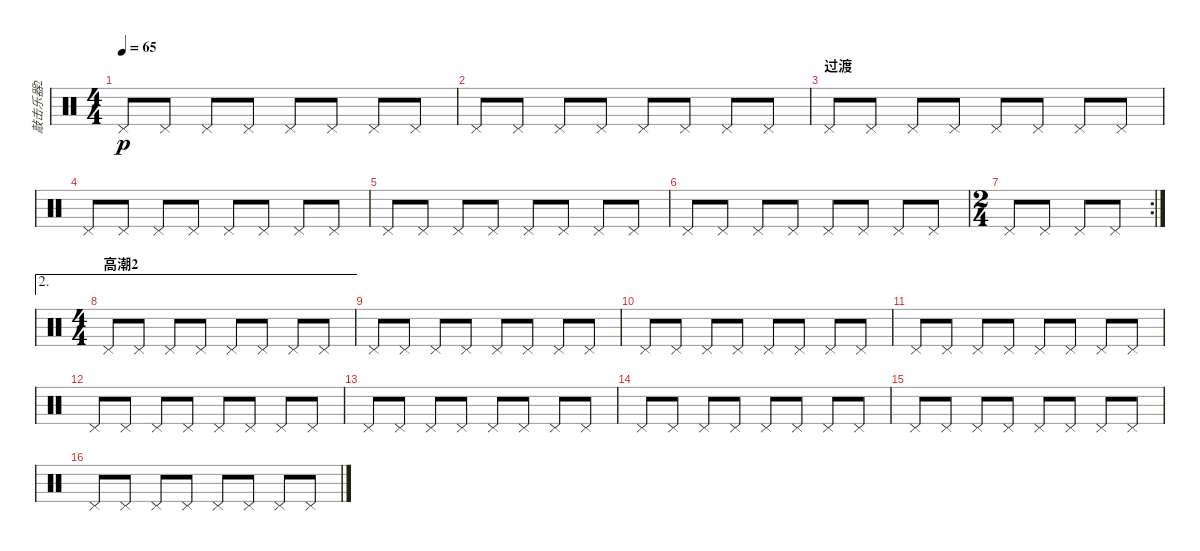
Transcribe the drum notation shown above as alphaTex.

\track ("敲击乐器2" "敲击乐器2") {instrument percussion}
\staff {score}
\articulation defaults
\ts (4 4)
\tempo 65
\clef neutral
\ks c "Pedal Hi-Hat (hit)".8{dy p} "Pedal Hi-Hat (hit)".8 "Pedal Hi-Hat (hit)".8 "Pedal Hi-Hat (hit)".8 "Pedal Hi-Hat (hit)".8 "Pedal Hi-Hat (hit)".8 "Pedal Hi-Hat (hit)".8 "Pedal Hi-Hat (hit)".8
|
"Pedal Hi-Hat (hit)".8 "Pedal Hi-Hat (hit)".8 "Pedal Hi-Hat (hit)".8 "Pedal Hi-Hat (hit)".8 "Pedal Hi-Hat (hit)".8 "Pedal Hi-Hat (hit)".8 "Pedal Hi-Hat (hit)".8 "Pedal Hi-Hat (hit)".8 |
\section ("" "过渡")
"Pedal Hi-Hat (hit)".8 "Pedal Hi-Hat (hit)".8 "Pedal Hi-Hat (hit)".8 "Pedal Hi-Hat (hit)".8 "Pedal Hi-Hat (hit)".8 "Pedal Hi-Hat (hit)".8 "Pedal Hi-Hat (hit)".8 "Pedal Hi-Hat (hit)".8 |
"Pedal Hi-Hat (hit)".8 "Pedal Hi-Hat (hit)".8 "Pedal Hi-Hat (hit)".8 "Pedal Hi-Hat (hit)".8 "Pedal Hi-Hat (hit)".8 "Pedal Hi-Hat (hit)".8 "Pedal Hi-Hat (hit)".8 "Pedal Hi-Hat (hit)".8 |
"Pedal Hi-Hat (hit)".8 "Pedal Hi-Hat (hit)".8 "Pedal Hi-Hat (hit)".8 "Pedal Hi-Hat (hit)".8 "Pedal Hi-Hat (hit)".8 "Pedal Hi-Hat (hit)".8 "Pedal Hi-Hat (hit)".8 "Pedal Hi-Hat (hit)".8 |
"Pedal Hi-Hat (hit)".8 "Pedal Hi-Hat (hit)".8 "Pedal Hi-Hat (hit)".8 "Pedal Hi-Hat (hit)".8 "Pedal Hi-Hat (hit)".8 "Pedal Hi-Hat (hit)".8 "Pedal Hi-Hat (hit)".8 "Pedal Hi-Hat (hit)".8 |
\rc 2
\ts (2 4)
"Pedal Hi-Hat (hit)".8 "Pedal Hi-Hat (hit)".8 "Pedal Hi-Hat (hit)".8 "Pedal Hi-Hat (hit)".8 |
\ae 2
\ts (4 4)
\section ("" "高潮2")
"Pedal Hi-Hat (hit)".8 "Pedal Hi-Hat (hit)".8 "Pedal Hi-Hat (hit)".8 "Pedal Hi-Hat (hit)".8 "Pedal Hi-Hat (hit)".8 "Pedal Hi-Hat (hit)".8 "Pedal Hi-Hat (hit)".8 "Pedal Hi-Hat (hit)".8 |
"Pedal Hi-Hat (hit)".8 "Pedal Hi-Hat (hit)".8 "Pedal Hi-Hat (hit)".8 "Pedal Hi-Hat (hit)".8 "Pedal Hi-Hat (hit)".8 "Pedal Hi-Hat (hit)".8 "Pedal Hi-Hat (hit)".8 "Pedal Hi-Hat (hit)".8 |
"Pedal Hi-Hat (hit)".8 "Pedal Hi-Hat (hit)".8 "Pedal Hi-Hat (hit)".8 "Pedal Hi-Hat (hit)".8 "Pedal Hi-Hat (hit)".8 "Pedal Hi-Hat (hit)".8 "Pedal Hi-Hat (hit)".8 "Pedal Hi-Hat (hit)".8 |
"Pedal Hi-Hat (hit)".8 "Pedal Hi-Hat (hit)".8 "Pedal Hi-Hat (hit)".8 "Pedal Hi-Hat (hit)".8 "Pedal Hi-Hat (hit)".8 "Pedal Hi-Hat (hit)".8 "Pedal Hi-Hat (hit)".8 "Pedal Hi-Hat (hit)".8 |
"Pedal Hi-Hat (hit)".8 "Pedal Hi-Hat (hit)".8 "Pedal Hi-Hat (hit)".8 "Pedal Hi-Hat (hit)".8 "Pedal Hi-Hat (hit)".8 "Pedal Hi-Hat (hit)".8 "Pedal Hi-Hat (hit)".8 "Pedal Hi-Hat (hit)".8 |
"Pedal Hi-Hat (hit)".8 "Pedal Hi-Hat (hit)".8 "Pedal Hi-Hat (hit)".8 "Pedal Hi-Hat (hit)".8 "Pedal Hi-Hat (hit)".8 "Pedal Hi-Hat (hit)".8 "Pedal Hi-Hat (hit)".8 "Pedal Hi-Hat (hit)".8 |
"Pedal Hi-Hat (hit)".8 "Pedal Hi-Hat (hit)".8 "Pedal Hi-Hat (hit)".8 "Pedal Hi-Hat (hit)".8 "Pedal Hi-Hat (hit)".8 "Pedal Hi-Hat (hit)".8 "Pedal Hi-Hat (hit)".8 "Pedal Hi-Hat (hit)".8 |
"Pedal Hi-Hat (hit)".8 "Pedal Hi-Hat (hit)".8 "Pedal Hi-Hat (hit)".8 "Pedal Hi-Hat (hit)".8 "Pedal Hi-Hat (hit)".8 "Pedal Hi-Hat (hit)".8 "Pedal Hi-Hat (hit)".8 "Pedal Hi-Hat (hit)".8 |
"Pedal Hi-Hat (hit)".8 "Pedal Hi-Hat (hit)".8 "Pedal Hi-Hat (hit)".8 "Pedal Hi-Hat (hit)".8 "Pedal Hi-Hat (hit)".8 "Pedal Hi-Hat (hit)".8 "Pedal Hi-Hat (hit)".8 "Pedal Hi-Hat (hit)".8
